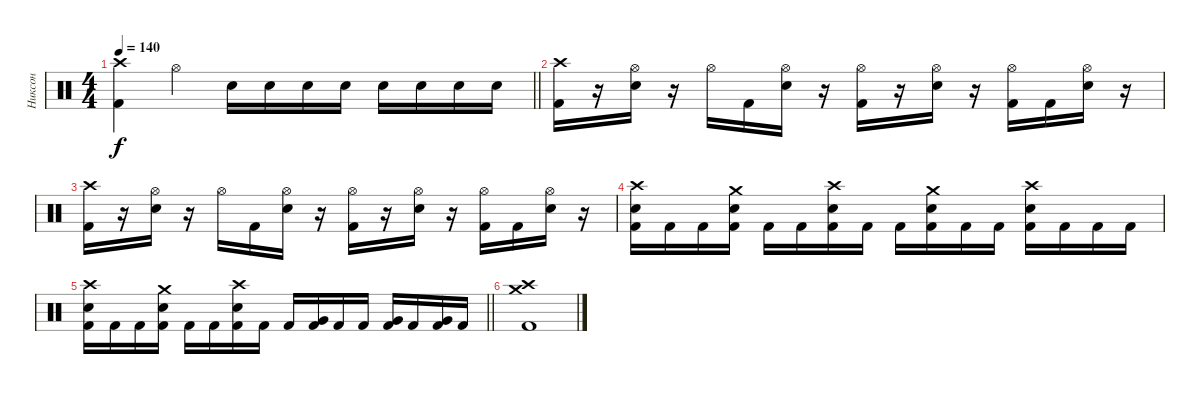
\track ("Никсон" "Никсон") {instrument percussion}
\staff {score}
\articulation defaults
\ts (4 4)
\tempo 140
\clef neutral
\barLineRight lightlight
\ks c
("Crash high (hit)" "Kick (hit) 2").4{dy f} "Hi-Hat (open)".4 "Snare (hit) 2".16 "Snare (hit) 2".16 "Snare (hit) 2".16 "Snare (hit) 2".16 "Snare (hit) 2".16 "Snare (hit) 2".16 "Snare (hit) 2".16 "Snare (hit) 2".16 |
("Crash high (hit)" "Kick (hit) 2").16 r.16 ("Hi-Hat (open)" "Snare (hit) 2").16 r.16 "Hi-Hat (open)".16 "Kick (hit) 2".16 ("Hi-Hat (open)" "Snare (hit) 2").16 r.16 ("Hi-Hat (open)" "Kick (hit) 2").16 r.16 ("Hi-Hat (open)" "Snare (hit) 2").16 r.16 ("Hi-Hat (open)" "Kick (hit) 2").16 "Kick (hit) 2".16 ("Hi-Hat (open)" "Snare (hit) 2").16 r.16 |
("Crash high (hit)" "Kick (hit) 2").16 r.16 ("Hi-Hat (open)" "Snare (hit) 2").16 r.16 "Hi-Hat (open)".16 "Kick (hit) 2".16 ("Hi-Hat (open)" "Snare (hit) 2").16 r.16 ("Hi-Hat (open)" "Kick (hit) 2").16 r.16 ("Hi-Hat (open)" "Snare (hit) 2").16 r.16 ("Hi-Hat (open)" "Kick (hit) 2").16 "Kick (hit) 2".16 ("Hi-Hat (open)" "Snare (hit) 2").16 r.16 |
("Crash high (hit)" "Snare (hit) 2" "Kick (hit) 2").16 "Kick (hit) 2".16 "Kick (hit) 2".16 ("Crash medium (hit)" "Snare (hit) 2" "Kick (hit) 2").16 "Kick (hit) 2".16 "Kick (hit) 2".16 ("Crash high (hit)" "Snare (hit) 2" "Kick (hit) 2").16 "Kick (hit) 2".16 "Kick (hit) 2".16 ("Crash medium (hit)" "Snare (hit) 2" "Kick (hit) 2").16 "Kick (hit) 2".16 "Kick (hit) 2".16 ("Crash high (hit)" "Snare (hit) 2" "Kick (hit) 2").16 "Kick (hit) 2".16 "Kick (hit) 2".16 "Kick (hit) 2".16 |
\barLineRight lightlight
("Crash high (hit)" "Snare (hit) 2" "Kick (hit) 2").16 "Kick (hit) 2".16 "Kick (hit) 2".16 ("Crash medium (hit)" "Snare (hit) 2" "Kick (hit) 2").16 "Kick (hit) 2".16 "Kick (hit) 2".16 ("Crash high (hit)" "Snare (hit) 2" "Kick (hit) 2").16 "Kick (hit) 2".16 "Kick (hit) 2".16 ("Very Low Tom (hit)" "Kick (hit) 2").16 "Kick (hit) 2".16 "Kick (hit) 2".16 ("Very Low Tom (hit)" "Kick (hit) 2").16 "Kick (hit) 2".16 ("Very Low Tom (hit)" "Kick (hit) 2").16 "Kick (hit) 2".16 |
("Crash high (hit)" "Crash medium (hit)" "Kick (hit) 2").1
